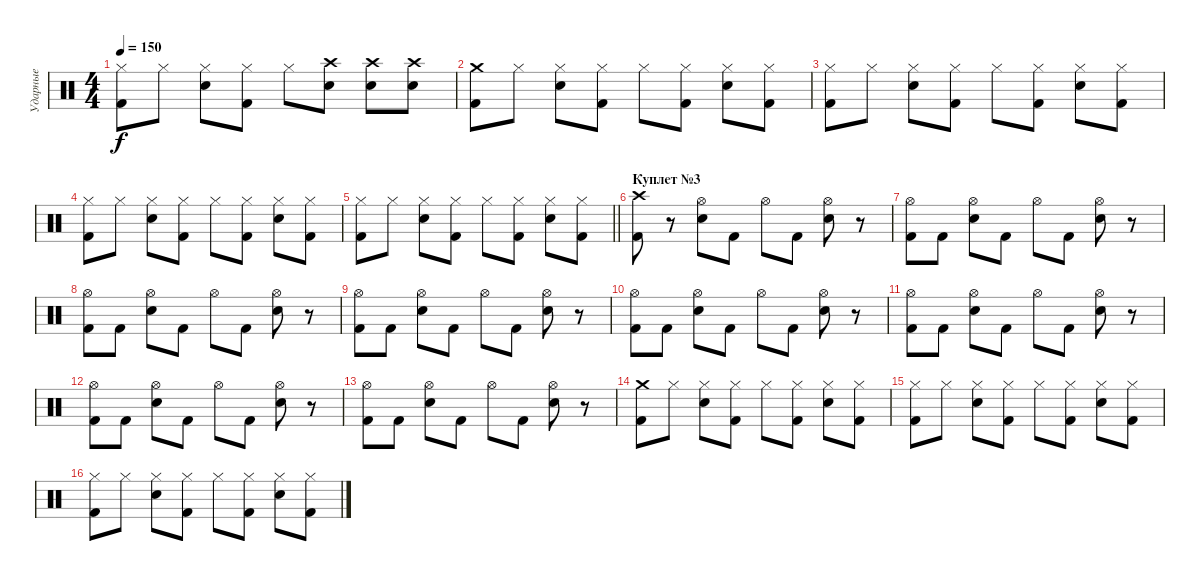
\track ("Ударные" "Ударные") {instrument percussion}
\staff {score}
\articulation defaults
\ts (4 4)
\tempo 150
\clef neutral
\ks c
("Hi-Hat (closed)" "Kick (hit) 2").8{dy f} "Hi-Hat (closed)".8 ("Hi-Hat (closed)" "Electric Snare (hit)").8 ("Hi-Hat (closed)" "Kick (hit) 2").8 "Hi-Hat (closed)".8 ("Crash high (hit)" "Electric Snare (hit)").8 ("Crash high (hit)" "Electric Snare (hit)").8 ("Crash high (hit)" "Electric Snare (hit)").8 |
("Crash medium (hit)" "Kick (hit) 2").8 "Hi-Hat (closed)".8 ("Hi-Hat (closed)" "Electric Snare (hit)").8 ("Hi-Hat (closed)" "Kick (hit) 2").8 "Hi-Hat (closed)".8 ("Hi-Hat (closed)" "Kick (hit) 2").8 ("Hi-Hat (closed)" "Electric Snare (hit)").8 ("Hi-Hat (closed)" "Kick (hit) 2").8 |
("Hi-Hat (closed)" "Kick (hit) 2").8 "Hi-Hat (closed)".8 ("Hi-Hat (closed)" "Electric Snare (hit)").8 ("Hi-Hat (closed)" "Kick (hit) 2").8 "Hi-Hat (closed)".8 ("Hi-Hat (closed)" "Kick (hit) 2").8 ("Hi-Hat (closed)" "Electric Snare (hit)").8 ("Hi-Hat (closed)" "Kick (hit) 2").8 |
("Hi-Hat (closed)" "Kick (hit) 2").8 "Hi-Hat (closed)".8 ("Hi-Hat (closed)" "Electric Snare (hit)").8 ("Hi-Hat (closed)" "Kick (hit) 2").8 "Hi-Hat (closed)".8 ("Hi-Hat (closed)" "Kick (hit) 2").8 ("Hi-Hat (closed)" "Electric Snare (hit)").8 ("Hi-Hat (closed)" "Kick (hit) 2").8 |
\barLineRight lightlight
("Hi-Hat (closed)" "Kick (hit) 2").8 "Hi-Hat (closed)".8 ("Hi-Hat (closed)" "Electric Snare (hit)").8 ("Hi-Hat (closed)" "Kick (hit) 2").8 "Hi-Hat (closed)".8 ("Hi-Hat (closed)" "Kick (hit) 2").8 ("Hi-Hat (closed)" "Electric Snare (hit)").8 ("Hi-Hat (closed)" "Kick (hit) 2").8 |
\section ("" "Куплет №3")
("Crash high (hit)" "Kick (hit) 2").8 r.8 ("Hi-Hat (open)" "Electric Snare (hit)").8 "Kick (hit) 2".8 "Hi-Hat (open)".8 "Kick (hit) 2".8 ("Hi-Hat (open)" "Electric Snare (hit)").8 r.8 |
("Hi-Hat (open)" "Kick (hit) 2").8 "Kick (hit) 2".8 ("Hi-Hat (open)" "Electric Snare (hit)").8 "Kick (hit) 2".8 "Hi-Hat (open)".8 "Kick (hit) 2".8 ("Hi-Hat (open)" "Electric Snare (hit)").8 r.8 |
("Hi-Hat (open)" "Kick (hit) 2").8 "Kick (hit) 2".8 ("Hi-Hat (open)" "Electric Snare (hit)").8 "Kick (hit) 2".8 "Hi-Hat (open)".8 "Kick (hit) 2".8 ("Hi-Hat (open)" "Electric Snare (hit)").8 r.8 |
("Hi-Hat (open)" "Kick (hit) 2").8 "Kick (hit) 2".8 ("Hi-Hat (open)" "Electric Snare (hit)").8 "Kick (hit) 2".8 "Hi-Hat (open)".8 "Kick (hit) 2".8 ("Hi-Hat (open)" "Electric Snare (hit)").8 r.8 |
("Hi-Hat (open)" "Kick (hit) 2").8 "Kick (hit) 2".8 ("Hi-Hat (open)" "Electric Snare (hit)").8 "Kick (hit) 2".8 "Hi-Hat (open)".8 "Kick (hit) 2".8 ("Hi-Hat (open)" "Electric Snare (hit)").8 r.8 |
("Hi-Hat (open)" "Kick (hit) 2").8 "Kick (hit) 2".8 ("Hi-Hat (open)" "Electric Snare (hit)").8 "Kick (hit) 2".8 "Hi-Hat (open)".8 "Kick (hit) 2".8 ("Hi-Hat (open)" "Electric Snare (hit)").8 r.8 |
("Hi-Hat (open)" "Kick (hit) 2").8 "Kick (hit) 2".8 ("Hi-Hat (open)" "Electric Snare (hit)").8 "Kick (hit) 2".8 "Hi-Hat (open)".8 "Kick (hit) 2".8 ("Hi-Hat (open)" "Electric Snare (hit)").8 r.8 |
("Hi-Hat (open)" "Kick (hit) 2").8 "Kick (hit) 2".8 ("Hi-Hat (open)" "Electric Snare (hit)").8 "Kick (hit) 2".8 "Hi-Hat (open)".8 "Kick (hit) 2".8 ("Hi-Hat (open)" "Electric Snare (hit)").8 r.8 |
("Crash medium (hit)" "Kick (hit) 2").8 "Hi-Hat (closed)".8 ("Hi-Hat (closed)" "Electric Snare (hit)").8 ("Hi-Hat (closed)" "Kick (hit) 2").8 "Hi-Hat (closed)".8 ("Hi-Hat (closed)" "Kick (hit) 2").8 ("Hi-Hat (closed)" "Electric Snare (hit)").8 ("Hi-Hat (closed)" "Kick (hit) 2").8 |
("Hi-Hat (closed)" "Kick (hit) 2").8 "Hi-Hat (closed)".8 ("Hi-Hat (closed)" "Electric Snare (hit)").8 ("Hi-Hat (closed)" "Kick (hit) 2").8 "Hi-Hat (closed)".8 ("Hi-Hat (closed)" "Kick (hit) 2").8 ("Hi-Hat (closed)" "Electric Snare (hit)").8 ("Hi-Hat (closed)" "Kick (hit) 2").8 |
("Hi-Hat (closed)" "Kick (hit) 2").8 "Hi-Hat (closed)".8 ("Hi-Hat (closed)" "Electric Snare (hit)").8 ("Hi-Hat (closed)" "Kick (hit) 2").8 "Hi-Hat (closed)".8 ("Hi-Hat (closed)" "Kick (hit) 2").8 ("Hi-Hat (closed)" "Electric Snare (hit)").8 ("Hi-Hat (closed)" "Kick (hit) 2").8
